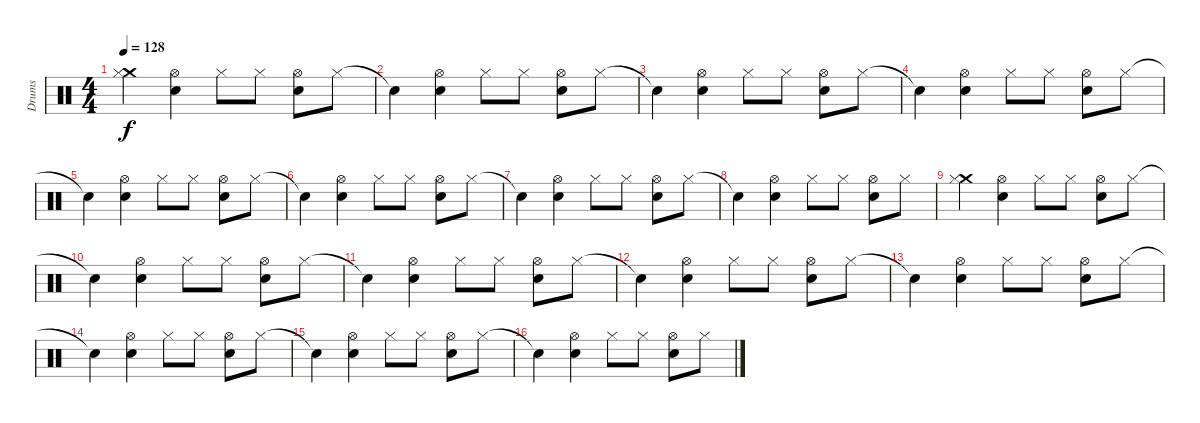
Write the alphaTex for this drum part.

\track ("Drums" "Drums") {instrument percussion}
\staff {score}
\articulation defaults
\ts (4 4)
\tempo 128
\clef neutral
\ks c
("Crash medium (hit)" "Hi-Hat (closed)").4{dy f} ("Snare (hit) 2" "Hi-Hat (open)").4 "Hi-Hat (closed)".8 "Hi-Hat (closed)".8 ("Snare (hit) 2" "Hi-Hat (open)").8 "Hi-Hat (closed)".8 |
"Snare (hit)"{t}.4 ("Snare (hit) 2" "Hi-Hat (open)").4 "Hi-Hat (closed)".8 "Hi-Hat (closed)".8 ("Snare (hit) 2" "Hi-Hat (open)").8 "Hi-Hat (closed)".8 |
"Snare (hit)"{t}.4 ("Snare (hit) 2" "Hi-Hat (open)").4 "Hi-Hat (closed)".8 "Hi-Hat (closed)".8 ("Snare (hit) 2" "Hi-Hat (open)").8 "Hi-Hat (closed)".8 |
"Snare (hit)"{t}.4 ("Snare (hit) 2" "Hi-Hat (open)").4 "Hi-Hat (closed)".8 "Hi-Hat (closed)".8 ("Snare (hit) 2" "Hi-Hat (open)").8 "Hi-Hat (closed)".8 |
"Snare (hit)"{t}.4 ("Snare (hit) 2" "Hi-Hat (open)").4 "Hi-Hat (closed)".8 "Hi-Hat (closed)".8 ("Snare (hit) 2" "Hi-Hat (open)").8 "Hi-Hat (closed)".8 |
"Snare (hit)"{t}.4 ("Snare (hit) 2" "Hi-Hat (open)").4 "Hi-Hat (closed)".8 "Hi-Hat (closed)".8 ("Snare (hit) 2" "Hi-Hat (open)").8 "Hi-Hat (closed)".8 |
"Snare (hit)"{t}.4 ("Snare (hit) 2" "Hi-Hat (open)").4 "Hi-Hat (closed)".8 "Hi-Hat (closed)".8 ("Snare (hit) 2" "Hi-Hat (open)").8 "Hi-Hat (closed)".8 |
"Snare (hit)"{t}.4 ("Snare (hit) 2" "Hi-Hat (open)").4 "Hi-Hat (closed)".8 "Hi-Hat (closed)".8 ("Snare (hit) 2" "Hi-Hat (open)").8 "Hi-Hat (closed)".8 |
("Crash medium (hit)" "Hi-Hat (closed)").4 ("Snare (hit) 2" "Hi-Hat (open)").4 "Hi-Hat (closed)".8 "Hi-Hat (closed)".8 ("Snare (hit) 2" "Hi-Hat (open)").8 "Hi-Hat (closed)".8 |
"Snare (hit)"{t}.4 ("Snare (hit) 2" "Hi-Hat (open)").4 "Hi-Hat (closed)".8 "Hi-Hat (closed)".8 ("Snare (hit) 2" "Hi-Hat (open)").8 "Hi-Hat (closed)".8 |
"Snare (hit)"{t}.4 ("Snare (hit) 2" "Hi-Hat (open)").4 "Hi-Hat (closed)".8 "Hi-Hat (closed)".8 ("Snare (hit) 2" "Hi-Hat (open)").8 "Hi-Hat (closed)".8 |
"Snare (hit)"{t}.4 ("Snare (hit) 2" "Hi-Hat (open)").4 "Hi-Hat (closed)".8 "Hi-Hat (closed)".8 ("Snare (hit) 2" "Hi-Hat (open)").8 "Hi-Hat (closed)".8 |
"Snare (hit)"{t}.4 ("Snare (hit) 2" "Hi-Hat (open)").4 "Hi-Hat (closed)".8 "Hi-Hat (closed)".8 ("Snare (hit) 2" "Hi-Hat (open)").8 "Hi-Hat (closed)".8 |
"Snare (hit)"{t}.4 ("Snare (hit) 2" "Hi-Hat (open)").4 "Hi-Hat (closed)".8 "Hi-Hat (closed)".8 ("Snare (hit) 2" "Hi-Hat (open)").8 "Hi-Hat (closed)".8 |
"Snare (hit)"{t}.4 ("Snare (hit) 2" "Hi-Hat (open)").4 "Hi-Hat (closed)".8 "Hi-Hat (closed)".8 ("Snare (hit) 2" "Hi-Hat (open)").8 "Hi-Hat (closed)".8 |
"Snare (hit)"{t}.4 ("Snare (hit) 2" "Hi-Hat (open)").4 "Hi-Hat (closed)".8 "Hi-Hat (closed)".8 ("Snare (hit) 2" "Hi-Hat (open)").8 "Hi-Hat (closed)".8
